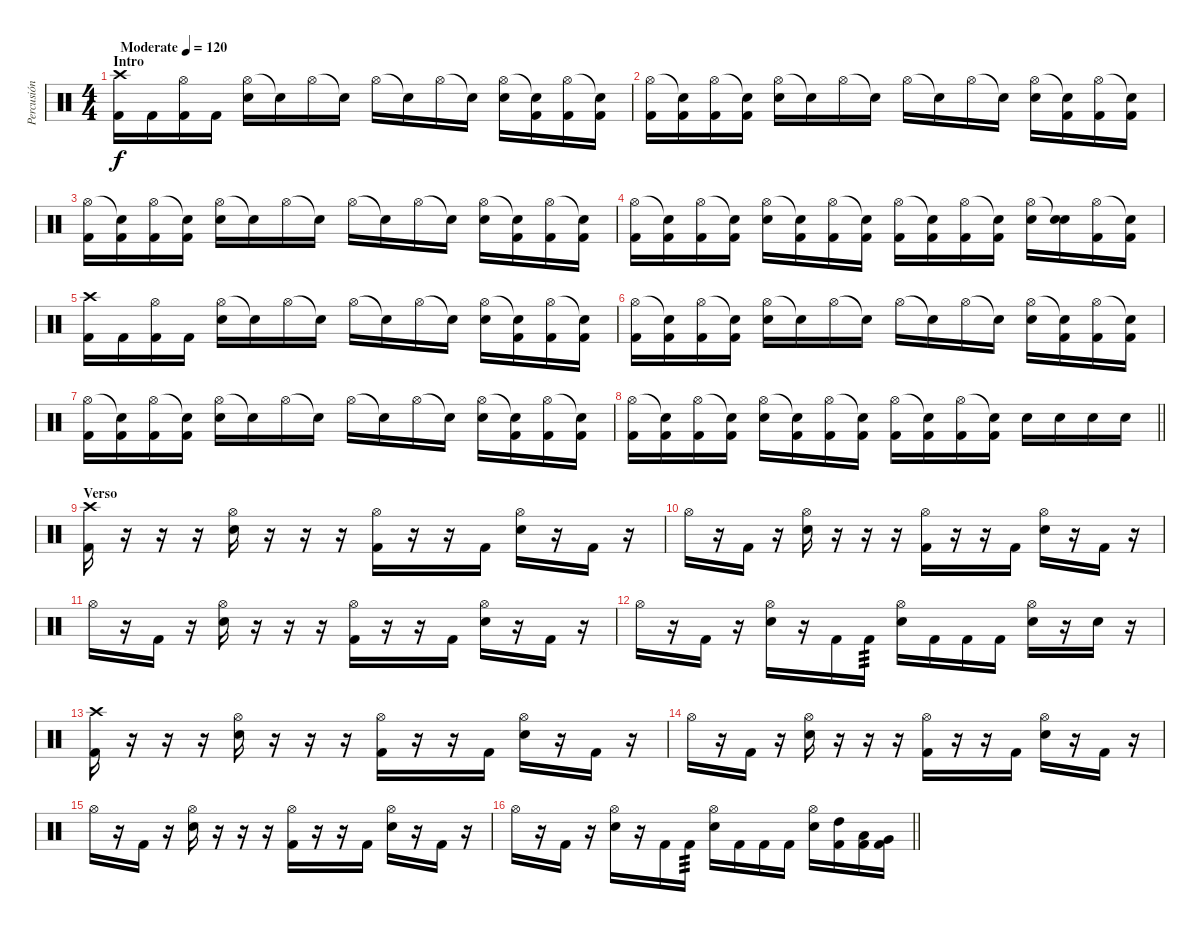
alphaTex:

\track ("Percusión" "Percusión") {instrument percussion}
\staff {score}
\articulation defaults
\ts (4 4)
\section ("" "Intro")
\tempo (120 "Moderate")
\clef neutral
\ks c
("Crash high (hit)" "Kick (hit) 2").16{dy f} "Kick (hit) 2".16 ("Hi-Hat (open)" "Kick (hit) 2").16 "Kick (hit) 2".16 ("Hi-Hat (open)" "Snare (hit) 2").16 "Snare (hit)"{t}.16 "Hi-Hat (open)".16 "Snare (hit)"{t}.16 "Hi-Hat (open)".16 "Snare (hit)"{t}.16 "Hi-Hat (open)".16 "Snare (hit)"{t}.16 ("Hi-Hat (open)" "Snare (hit) 2").16 ("Snare (hit)"{t} "Kick (hit) 2").16 ("Hi-Hat (open)" "Kick (hit) 2").16 ("Snare (hit)"{t} "Kick (hit) 2").16 |
("Hi-Hat (open)" "Kick (hit) 2").16 ("Snare (hit)"{t} "Kick (hit) 2").16 ("Hi-Hat (open)" "Kick (hit) 2").16 ("Snare (hit)"{t} "Kick (hit) 2").16 ("Hi-Hat (open)" "Snare (hit) 2").16 "Snare (hit)"{t}.16 "Hi-Hat (open)".16 "Snare (hit)"{t}.16 "Hi-Hat (open)".16 "Snare (hit)"{t}.16 "Hi-Hat (open)".16 "Snare (hit)"{t}.16 ("Hi-Hat (open)" "Snare (hit) 2").16 ("Snare (hit)"{t} "Kick (hit) 2").16 ("Hi-Hat (open)" "Kick (hit) 2").16 ("Snare (hit)"{t} "Kick (hit) 2").16 |
("Hi-Hat (open)" "Kick (hit) 2").16 ("Snare (hit)"{t} "Kick (hit) 2").16 ("Hi-Hat (open)" "Kick (hit) 2").16 ("Snare (hit)"{t} "Kick (hit) 2").16 ("Hi-Hat (open)" "Snare (hit) 2").16 "Snare (hit)"{t}.16 "Hi-Hat (open)".16 "Snare (hit)"{t}.16 "Hi-Hat (open)".16 "Snare (hit)"{t}.16 "Hi-Hat (open)".16 "Snare (hit)"{t}.16 ("Hi-Hat (open)" "Snare (hit) 2").16 ("Snare (hit)"{t} "Kick (hit) 2").16 ("Hi-Hat (open)" "Kick (hit) 2").16 ("Snare (hit)"{t} "Kick (hit) 2").16 |
("Hi-Hat (open)" "Kick (hit) 2").16 ("Snare (hit)"{t} "Kick (hit) 2").16 ("Hi-Hat (open)" "Kick (hit) 2").16 ("Snare (hit)"{t} "Kick (hit) 2").16 ("Hi-Hat (open)" "Snare (hit) 2").16 ("Snare (hit)"{t} "Kick (hit) 2").16 ("Hi-Hat (open)" "Kick (hit) 2").16 ("Snare (hit)"{t} "Kick (hit) 2").16 ("Hi-Hat (open)" "Kick (hit) 2").16 ("Snare (hit)"{t} "Kick (hit) 2").16 ("Hi-Hat (open)" "Kick (hit) 2").16 ("Snare (hit)"{t} "Kick (hit) 2").16 ("Hi-Hat (open)" "Snare (hit) 2").16 ("Snare (hit)"{t} "Snare (hit) 2").16 ("Hi-Hat (open)" "Kick (hit) 2").16 ("Snare (hit)"{t} "Kick (hit) 2").16 |
("Crash high (hit)" "Kick (hit) 2").16 "Kick (hit) 2".16 ("Hi-Hat (open)" "Kick (hit) 2").16 "Kick (hit) 2".16 ("Hi-Hat (open)" "Snare (hit) 2").16 "Snare (hit)"{t}.16 "Hi-Hat (open)".16 "Snare (hit)"{t}.16 "Hi-Hat (open)".16 "Snare (hit)"{t}.16 "Hi-Hat (open)".16 "Snare (hit)"{t}.16 ("Hi-Hat (open)" "Snare (hit) 2").16 ("Snare (hit)"{t} "Kick (hit) 2").16 ("Hi-Hat (open)" "Kick (hit) 2").16 ("Snare (hit)"{t} "Kick (hit) 2").16 |
("Hi-Hat (open)" "Kick (hit) 2").16 ("Snare (hit)"{t} "Kick (hit) 2").16 ("Hi-Hat (open)" "Kick (hit) 2").16 ("Snare (hit)"{t} "Kick (hit) 2").16 ("Hi-Hat (open)" "Snare (hit) 2").16 "Snare (hit)"{t}.16 "Hi-Hat (open)".16 "Snare (hit)"{t}.16 "Hi-Hat (open)".16 "Snare (hit)"{t}.16 "Hi-Hat (open)".16 "Snare (hit)"{t}.16 ("Hi-Hat (open)" "Snare (hit) 2").16 ("Snare (hit)"{t} "Kick (hit) 2").16 ("Hi-Hat (open)" "Kick (hit) 2").16 ("Snare (hit)"{t} "Kick (hit) 2").16 |
("Hi-Hat (open)" "Kick (hit) 2").16 ("Snare (hit)"{t} "Kick (hit) 2").16 ("Hi-Hat (open)" "Kick (hit) 2").16 ("Snare (hit)"{t} "Kick (hit) 2").16 ("Hi-Hat (open)" "Snare (hit) 2").16 "Snare (hit)"{t}.16 "Hi-Hat (open)".16 "Snare (hit)"{t}.16 "Hi-Hat (open)".16 "Snare (hit)"{t}.16 "Hi-Hat (open)".16 "Snare (hit)"{t}.16 ("Hi-Hat (open)" "Snare (hit) 2").16 ("Snare (hit)"{t} "Kick (hit) 2").16 ("Hi-Hat (open)" "Kick (hit) 2").16 ("Snare (hit)"{t} "Kick (hit) 2").16 |
\barLineRight lightlight
("Hi-Hat (open)" "Kick (hit) 2").16 ("Snare (hit)"{t} "Kick (hit) 2").16 ("Hi-Hat (open)" "Kick (hit) 2").16 ("Snare (hit)"{t} "Kick (hit) 2").16 ("Hi-Hat (open)" "Snare (hit) 2").16 ("Snare (hit)"{t} "Kick (hit) 2").16 ("Hi-Hat (open)" "Kick (hit) 2").16 ("Snare (hit)"{t} "Kick (hit) 2").16 ("Hi-Hat (open)" "Kick (hit) 2").16 ("Snare (hit)"{t} "Kick (hit) 2").16 ("Hi-Hat (open)" "Kick (hit) 2").16 ("Snare (hit)"{t} "Kick (hit) 2").16 "Snare (hit) 2".16 "Snare (hit) 2".16 "Snare (hit) 2".16 "Snare (hit) 2".16 |
\section ("" "Verso")
("Crash high (hit)" "Kick (hit) 2").16 r.16 r.16 r.16 ("Hi-Hat (open)" "Snare (hit) 2").16 r.16 r.16 r.16 ("Hi-Hat (open)" "Kick (hit) 2").16 r.16 r.16 "Kick (hit) 2".16 ("Hi-Hat (open)" "Snare (hit) 2").16 r.16 "Kick (hit) 2".16 r.16 |
"Hi-Hat (open)".16 r.16 "Kick (hit) 2".16 r.16 ("Hi-Hat (open)" "Snare (hit) 2").16 r.16 r.16 r.16 ("Hi-Hat (open)" "Kick (hit) 2").16 r.16 r.16 "Kick (hit) 2".16 ("Hi-Hat (open)" "Snare (hit) 2").16 r.16 "Kick (hit) 2".16 r.16 |
"Hi-Hat (open)".16 r.16 "Kick (hit) 2".16 r.16 ("Hi-Hat (open)" "Snare (hit) 2").16 r.16 r.16 r.16 ("Hi-Hat (open)" "Kick (hit) 2").16 r.16 r.16 "Kick (hit) 2".16 ("Hi-Hat (open)" "Snare (hit) 2").16 r.16 "Kick (hit) 2".16 r.16 |
"Hi-Hat (open)".16 r.16 "Kick (hit) 2".16 r.16 ("Hi-Hat (open)" "Snare (hit) 2").16 r.16 "Kick (hit) 2".16 "Kick (hit) 2".16{tp 3} ("Hi-Hat (open)" "Snare (hit) 2").16 "Kick (hit) 2".16 "Kick (hit) 2".16 "Kick (hit) 2".16 ("Hi-Hat (open)" "Snare (hit) 2").16 r.16 "Snare (hit) 2".16 r.16 |
("Crash high (hit)" "Kick (hit) 2").16 r.16 r.16 r.16 ("Hi-Hat (open)" "Snare (hit) 2").16 r.16 r.16 r.16 ("Hi-Hat (open)" "Kick (hit) 2").16 r.16 r.16 "Kick (hit) 2".16 ("Hi-Hat (open)" "Snare (hit) 2").16 r.16 "Kick (hit) 2".16 r.16 |
"Hi-Hat (open)".16 r.16 "Kick (hit) 2".16 r.16 ("Hi-Hat (open)" "Snare (hit) 2").16 r.16 r.16 r.16 ("Hi-Hat (open)" "Kick (hit) 2").16 r.16 r.16 "Kick (hit) 2".16 ("Hi-Hat (open)" "Snare (hit) 2").16 r.16 "Kick (hit) 2".16 r.16 |
"Hi-Hat (open)".16 r.16 "Kick (hit) 2".16 r.16 ("Hi-Hat (open)" "Snare (hit) 2").16 r.16 r.16 r.16 ("Hi-Hat (open)" "Kick (hit) 2").16 r.16 r.16 "Kick (hit) 2".16 ("Hi-Hat (open)" "Snare (hit) 2").16 r.16 "Kick (hit) 2".16 r.16 |
\barLineRight lightlight "Hi-Hat (open)".16
r.16 "Kick (hit) 2".16 r.16 ("Hi-Hat (open)" "Snare (hit) 2").16 r.16 "Kick (hit) 2".16 "Kick (hit) 2".16{tp 3} ("Hi-Hat (open)" "Snare (hit) 2").16 "Kick (hit) 2".16 "Kick (hit) 2".16 "Kick (hit) 2".16 ("Hi-Hat (open)" "Snare (hit) 2").16 ("High Tom (hit)" "Kick (hit) 2").16 ("Low Tom (hit)" "Kick (hit) 2").16 ("Very Low Tom (hit)" "Kick (hit) 2").16
